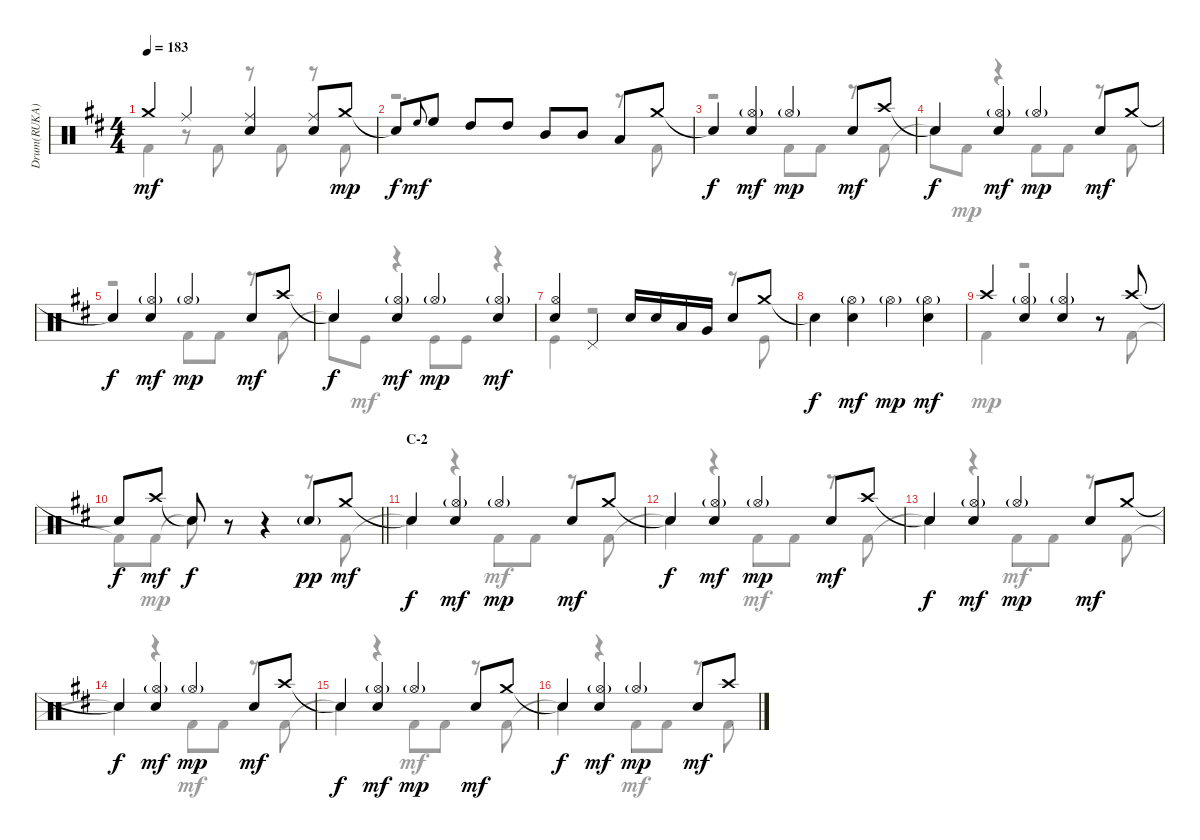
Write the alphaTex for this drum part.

\track ("Drum(RUKA)" "Drum(RUKA)") {instrument percussion}
\staff {score}
\articulation defaults
\voice
\ts (4 4)
\tempo 183
\clef neutral
\ks d "Crash medium (hit)".4{dy mf} "Ride (middle)".4
("Ride (middle)" "Snare (hit) 2").4 ("Ride (middle)" "Snare (hit) 2").8 "Crash medium (hit)".8{dy mp} |
"Snare (hit)"{t}.8{dy f} "High Floor Tom (hit)".8{gr onbeat dy mf} "High Floor Tom (hit)".8 "High Tom (hit)".8 "High Tom (hit)".8 "Mid Tom (hit)".8 "Mid Tom (hit)".8 "Low Tom (hit)".8 "Crash medium (hit)".8 |
"Snare (hit)"{t}.4{dy f} ("Hi-Hat (open)"{g} "Snare (hit) 2").4{dy mf} "Hi-Hat (open)"{g}.4{dy mp} "Snare (hit) 2".8{dy mf} "Crash high (hit)".8 |
"Snare (hit)"{t}.4{dy f} ("Hi-Hat (open)"{g} "Snare (hit) 2").4{dy mf} "Hi-Hat (open)"{g}.4{dy mp} "Snare (hit) 2".8{dy mf} "Crash medium (hit)".8 |
"Snare (hit)"{t}.4{dy f} ("Hi-Hat (open)"{g} "Snare (hit) 2").4{dy mf} "Hi-Hat (open)"{g}.4{dy mp} "Snare (hit) 2".8{dy mf} "Crash high (hit)".8 |
"Snare (hit)"{t}.4{dy f} ("Hi-Hat (open)"{g} "Snare (hit) 2").4{dy mf} "Hi-Hat (open)"{g}.4{dy mp} ("Hi-Hat (open)"{g} "Snare (hit) 2").4{dy mf} |
("Hi-Hat (open)" "Snare (hit) 2").4 "Pedal Hi-Hat (hit)".4 "Snare (hit) 2".16 "Snare (hit) 2".16 "Low Tom (hit)".16 "Very Low Tom (hit)".16 "Snare (hit) 2".8 "Crash medium (hit)".8 |
"Snare (hit)"{t}.4{dy f} ("Hi-Hat (open)"{g} "Snare (hit) 2").4{dy mf} "Hi-Hat (open)"{g}.4{dy mp} ("Hi-Hat (open)"{g} "Snare (hit) 2").4{dy mf} |
"Crash high (hit)".4 ("Hi-Hat (open)"{g} "Snare (hit) 2").4 ("Hi-Hat (open)"{g} "Snare (hit) 2").4 r.8 "Crash high (hit)".8 |
\barLineRight lightlight "Snare (hit)"{t}.8{dy f} "Crash high (hit)".8{dy mf} "Snare (hit)"{t}.8{dy f volume 5}
r.8 r.4{volume 0} "Electric Snare (hit)"{g}.8{dy pp volume 12} "Crash medium (hit)".8{dy mf} |
\section ("" "C-2")
"Snare (hit)"{t}.4{dy f} ("Hi-Hat (open)"{g} "Snare (hit) 2").4{dy mf} "Hi-Hat (open)"{g}.4{dy mp} "Snare (hit) 2".8{dy mf} "Crash medium (hit)".8 |
"Snare (hit)"{t}.4{dy f} ("Hi-Hat (open)"{g} "Snare (hit) 2").4{dy mf} "Hi-Hat (open)"{g}.4{dy mp} "Snare (hit) 2".8{dy mf} "Crash high (hit)".8 |
"Snare (hit)"{t}.4{dy f} ("Hi-Hat (open)"{g} "Snare (hit) 2").4{dy mf} "Hi-Hat (open)"{g}.4{dy mp} "Snare (hit) 2".8{dy mf} "Crash medium (hit)".8 |
"Snare (hit)"{t}.4{dy f} ("Hi-Hat (open)"{g} "Snare (hit) 2").4{dy mf} "Hi-Hat (open)"{g}.4{dy mp} "Snare (hit) 2".8{dy mf} "Crash high (hit)".8 |
"Snare (hit)"{t}.4{dy f} ("Hi-Hat (open)"{g} "Snare (hit) 2").4{dy mf} "Hi-Hat (open)"{g}.4{dy mp} "Snare (hit) 2".8{dy mf} "Crash medium (hit)".8 |
"Snare (hit)"{t}.4{dy f} ("Hi-Hat (open)"{g} "Snare (hit) 2").4{dy mf} "Hi-Hat (open)"{g}.4{dy mp} "Snare (hit) 2".8{dy mf} "Crash high (hit)".8
\voice
\clef neutral
\ottava regular
\simile none
\ks d "Kick (hit) 2".4{dy mf}
r.8 "Kick (hit) 2".8 r.8 "Kick (hit) 2".8 r.8 "Kick (hit) 2".8 |
r.2{d} r.8 "Kick (hit) 2".8 |
r.2 "Kick (hit) 2".8{dy mp} "Kick (hit) 2".8 r.8 "Kick (hit) 2".8 |
"Snare (hit)"{t}.8{dy f} "Kick (hit) 2".8{dy mp} r.4 "Kick (hit) 2".8 "Kick (hit) 2".8 r.8 "Kick (hit) 2".8 |
r.2 "Kick (hit) 2".8 "Kick (hit) 2".8 r.8 "Kick (hit) 2".8 |
"Snare (hit)"{t}.8{dy f} "Kick (hit)".8{dy mf} r.4 "Kick (hit)".8 "Kick (hit)".8 r.4 |
"Kick (hit)".4 r.2 r.8 "Kick (hit)".8 |
|
"Kick (hit) 2".4{dy mp} r.2 r.8 "Kick (hit) 2".8 |
\barLineRight lightlight "Kick (hit) 2"{t}.8{dy f} "Kick (hit) 2".8{dy mp} "Snare (hit)"{t}.8{dy f}
r.8 r.4 r.8 "Kick (hit) 2".8{dy mf} |
"Snare (hit)"{t}.4{dy f} r.4 "Kick (hit) 2".8{dy mf} "Kick (hit) 2".8 r.8 "Kick (hit) 2".8 |
"Snare (hit)"{t}.4{dy f} r.4 "Kick (hit) 2".8{dy mf} "Kick (hit) 2".8 r.8 "Kick (hit) 2".8 |
"Snare (hit)"{t}.4{dy f} r.4 "Kick (hit) 2".8{dy mf} "Kick (hit) 2".8 r.8 "Kick (hit) 2".8 |
"Snare (hit)"{t}.4{dy f} r.4 "Kick (hit) 2".8{dy mf} "Kick (hit) 2".8 r.8 "Kick (hit) 2".8 |
"Snare (hit)"{t}.4{dy f} r.4 "Kick (hit) 2".8{dy mf} "Kick (hit) 2".8 r.8 "Kick (hit) 2".8 |
"Snare (hit)"{t}.4{dy f} r.4 "Kick (hit) 2".8{dy mf} "Kick (hit) 2".8 r.8 "Kick (hit) 2".8
